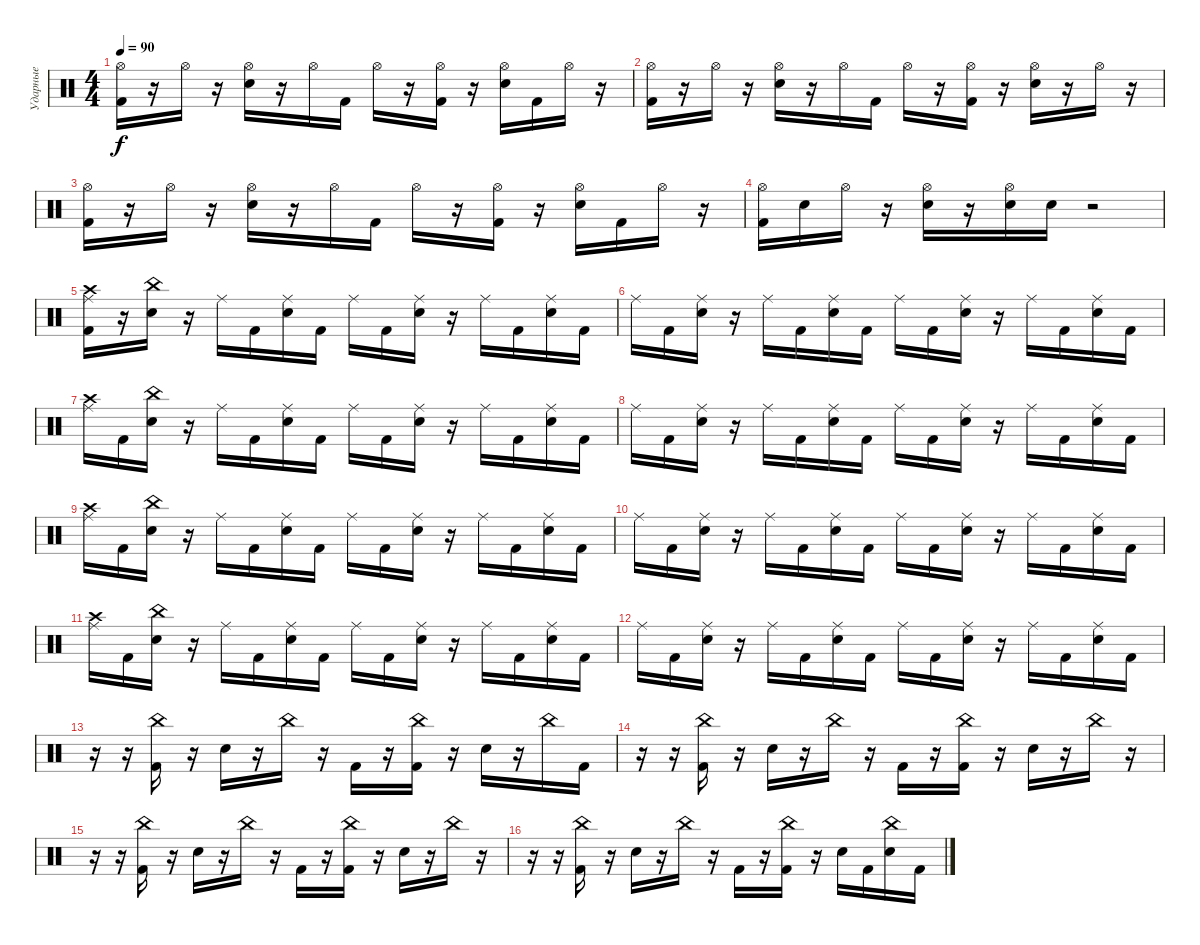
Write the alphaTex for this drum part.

\track ("Ударные" "Ударные") {instrument percussion}
\staff {score}
\articulation defaults
\ts (4 4)
\tempo 90
\clef neutral
\ks c
("Hi-Hat (open)" "Kick (hit) 2").16{dy f} r.16 "Hi-Hat (open)".16 r.16 ("Hi-Hat (open)" "Snare (hit) 2").16 r.16 "Hi-Hat (open)".16 "Kick (hit) 2".16 "Hi-Hat (open)".16 r.16 ("Hi-Hat (open)" "Kick (hit) 2").16 r.16 ("Hi-Hat (open)" "Snare (hit) 2").16 "Kick (hit) 2".16 "Hi-Hat (open)".16 r.16 |
("Hi-Hat (open)" "Kick (hit) 2").16 r.16 "Hi-Hat (open)".16 r.16 ("Hi-Hat (open)" "Snare (hit) 2").16 r.16 "Hi-Hat (open)".16 "Kick (hit) 2".16 "Hi-Hat (open)".16 r.16 ("Hi-Hat (open)" "Kick (hit) 2").16 r.16 ("Hi-Hat (open)" "Snare (hit) 2").16 r.16 "Hi-Hat (open)".16 r.16 |
("Hi-Hat (open)" "Kick (hit) 2").16 r.16 "Hi-Hat (open)".16 r.16 ("Hi-Hat (open)" "Snare (hit) 2").16 r.16 "Hi-Hat (open)".16 "Kick (hit) 2".16 "Hi-Hat (open)".16 r.16 ("Hi-Hat (open)" "Kick (hit) 2").16 r.16 ("Hi-Hat (open)" "Snare (hit) 2").16 "Kick (hit) 2".16 "Hi-Hat (open)".16 r.16 |
("Hi-Hat (open)" "Kick (hit) 2").16 "Snare (hit) 2".16 "Hi-Hat (open)".16 r.16 ("Hi-Hat (open)" "Snare (hit) 2").16 r.16 ("Hi-Hat (open)" "Snare (hit) 2").16 "Snare (hit) 2".16 r.2 |
("Ride (middle)" "Crash high (hit)" "Kick (hit) 2").16 r.16 ("China (hit)" "Snare (hit) 2").16 r.16 "Ride (middle)".16 "Kick (hit) 2".16 ("Ride (middle)" "Snare (hit) 2").16 "Kick (hit) 2".16 "Ride (middle)".16 "Kick (hit) 2".16 ("Ride (middle)" "Snare (hit) 2").16 r.16 "Ride (middle)".16 "Kick (hit) 2".16 ("Ride (middle)" "Snare (hit) 2").16 "Kick (hit) 2".16 |
"Ride (middle)".16 "Kick (hit) 2".16 ("Ride (middle)" "Snare (hit) 2").16 r.16 "Ride (middle)".16 "Kick (hit) 2".16 ("Ride (middle)" "Snare (hit) 2").16 "Kick (hit) 2".16 "Ride (middle)".16 "Kick (hit) 2".16 ("Ride (middle)" "Snare (hit) 2").16 r.16 "Ride (middle)".16 "Kick (hit) 2".16 ("Ride (middle)" "Snare (hit) 2").16 "Kick (hit) 2".16 |
("Ride (middle)" "Crash high (hit)").16 "Kick (hit) 2".16 ("China (hit)" "Snare (hit) 2").16 r.16 "Ride (middle)".16 "Kick (hit) 2".16 ("Ride (middle)" "Snare (hit) 2").16 "Kick (hit) 2".16 "Ride (middle)".16 "Kick (hit) 2".16 ("Ride (middle)" "Snare (hit) 2").16 r.16 "Ride (middle)".16 "Kick (hit) 2".16 ("Ride (middle)" "Snare (hit) 2").16 "Kick (hit) 2".16 |
"Ride (middle)".16 "Kick (hit) 2".16 ("Ride (middle)" "Snare (hit) 2").16 r.16 "Ride (middle)".16 "Kick (hit) 2".16 ("Ride (middle)" "Snare (hit) 2").16 "Kick (hit) 2".16 "Ride (middle)".16 "Kick (hit) 2".16 ("Ride (middle)" "Snare (hit) 2").16 r.16 "Ride (middle)".16 "Kick (hit) 2".16 ("Ride (middle)" "Snare (hit) 2").16 "Kick (hit) 2".16 |
("Ride (middle)" "Crash high (hit)").16 "Kick (hit) 2".16 ("China (hit)" "Snare (hit) 2").16 r.16 "Ride (middle)".16 "Kick (hit) 2".16 ("Ride (middle)" "Snare (hit) 2").16 "Kick (hit) 2".16 "Ride (middle)".16 "Kick (hit) 2".16 ("Ride (middle)" "Snare (hit) 2").16 r.16 "Ride (middle)".16 "Kick (hit) 2".16 ("Ride (middle)" "Snare (hit) 2").16 "Kick (hit) 2".16 |
"Ride (middle)".16 "Kick (hit) 2".16 ("Ride (middle)" "Snare (hit) 2").16 r.16 "Ride (middle)".16 "Kick (hit) 2".16 ("Ride (middle)" "Snare (hit) 2").16 "Kick (hit) 2".16 "Ride (middle)".16 "Kick (hit) 2".16 ("Ride (middle)" "Snare (hit) 2").16 r.16 "Ride (middle)".16 "Kick (hit) 2".16 ("Ride (middle)" "Snare (hit) 2").16 "Kick (hit) 2".16 |
("Ride (middle)" "Crash high (hit)").16 "Kick (hit) 2".16 ("China (hit)" "Snare (hit) 2").16 r.16 "Ride (middle)".16 "Kick (hit) 2".16 ("Ride (middle)" "Snare (hit) 2").16 "Kick (hit) 2".16 "Ride (middle)".16 "Kick (hit) 2".16 ("Ride (middle)" "Snare (hit) 2").16 r.16 "Ride (middle)".16 "Kick (hit) 2".16 ("Ride (middle)" "Snare (hit) 2").16 "Kick (hit) 2".16 |
"Ride (middle)".16 "Kick (hit) 2".16 ("Ride (middle)" "Snare (hit) 2").16 r.16 "Ride (middle)".16 "Kick (hit) 2".16 ("Ride (middle)" "Snare (hit) 2").16 "Kick (hit) 2".16 "Ride (middle)".16 "Kick (hit) 2".16 ("Ride (middle)" "Snare (hit) 2").16 r.16 "Ride (middle)".16 "Kick (hit) 2".16 ("Ride (middle)" "Snare (hit) 2").16 "Kick (hit) 2".16 |
r.16 r.16 ("China (hit)" "Kick (hit) 2").16 r.16 "Snare (hit) 2".16 r.16 "China (hit)".16 r.16 "Kick (hit) 2".16 r.16 ("China (hit)" "Kick (hit) 2").16 r.16 "Snare (hit) 2".16 r.16 "China (hit)".16 "Kick (hit) 2".16 |
r.16 r.16 ("China (hit)" "Kick (hit) 2").16 r.16 "Snare (hit) 2".16 r.16 "China (hit)".16 r.16 "Kick (hit) 2".16 r.16 ("China (hit)" "Kick (hit) 2").16 r.16 "Snare (hit) 2".16 r.16 "China (hit)".16 r.16 |
r.16 r.16 ("China (hit)" "Kick (hit) 2").16 r.16 "Snare (hit) 2".16 r.16 "China (hit)".16 r.16 "Kick (hit) 2".16 r.16 ("China (hit)" "Kick (hit) 2").16 r.16 "Snare (hit) 2".16 r.16 "China (hit)".16 r.16 |
r.16 r.16 ("China (hit)" "Kick (hit) 2").16 r.16 "Snare (hit) 2".16 r.16 "China (hit)".16 r.16 "Kick (hit) 2".16 r.16 ("China (hit)" "Kick (hit) 2").16 r.16 "Snare (hit) 2".16 "Kick (hit) 2".16 ("China (hit)" "Snare (hit) 2").16 "Kick (hit) 2".16
